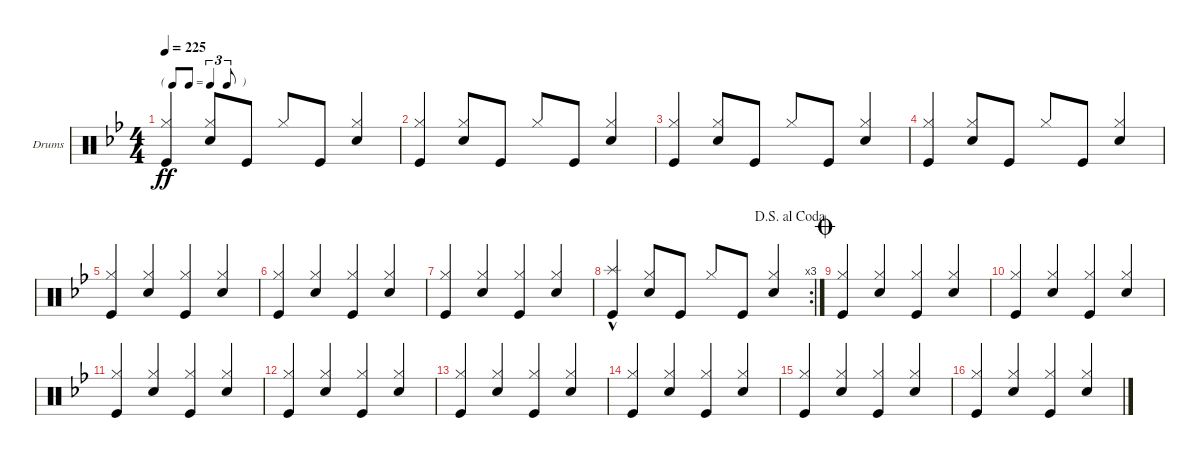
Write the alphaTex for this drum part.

\defaultSystemsLayout 4
\bracketExtendMode groupsimilarinstruments
\firstSystemTrackNameOrientation horizontal
\otherSystemsTrackNameOrientation horizontal
\track ("Drumkit" "Drums") {instrument percussion}
\staff {score}
\articulation defaults
\ts (4 4)
\tf triplet8th
\tempo 225
\clef neutral
\ks gminor
("Kick (hit)" "Hi-Hat (closed)").4{dy ff} ("Snare (hit) 2" "Hi-Hat (closed)").8{beam invert} "Kick (hit)".8 "Hi-Hat (closed)".8{beam invert} "Kick (hit)".8 ("Snare (hit) 2" "Hi-Hat (closed)").4{beam invert} |
("Kick (hit)" "Hi-Hat (closed)").4 ("Snare (hit) 2" "Hi-Hat (closed)").8{beam invert} "Kick (hit)".8 "Hi-Hat (closed)".8{beam invert} "Kick (hit)".8 ("Snare (hit) 2" "Hi-Hat (closed)").4{beam invert} |
("Kick (hit)" "Hi-Hat (closed)").4 ("Snare (hit) 2" "Hi-Hat (closed)").8{beam invert} "Kick (hit)".8 "Hi-Hat (closed)".8{beam invert} "Kick (hit)".8 ("Snare (hit) 2" "Hi-Hat (closed)").4{beam invert} |
("Kick (hit)" "Hi-Hat (closed)").4 ("Snare (hit) 2" "Hi-Hat (closed)").8{beam invert} "Kick (hit)".8 "Hi-Hat (closed)".8{beam invert} "Kick (hit)".8 ("Snare (hit) 2" "Hi-Hat (closed)").4{beam invert} |
("Kick (hit)" "Hi-Hat (closed)").4 ("Snare (hit) 2" "Hi-Hat (closed)").4{beam invert} ("Kick (hit)" "Hi-Hat (closed)").4 ("Snare (hit) 2" "Hi-Hat (closed)").4{beam invert} |
("Kick (hit)" "Hi-Hat (closed)").4 ("Snare (hit) 2" "Hi-Hat (closed)").4{beam invert} ("Kick (hit)" "Hi-Hat (closed)").4 ("Snare (hit) 2" "Hi-Hat (closed)").4{beam invert} |
("Kick (hit)" "Hi-Hat (closed)").4 ("Snare (hit) 2" "Hi-Hat (closed)").4{beam invert} ("Kick (hit)" "Hi-Hat (closed)").4 ("Snare (hit) 2" "Hi-Hat (closed)").4{beam invert} |
\rc 3
\jump dalsegnoalcoda
("Kick (hit)" "Splash (hit)"{hac}).4 ("Snare (hit) 2" "Hi-Hat (closed)").8{beam invert} "Kick (hit)".8 "Hi-Hat (closed)".8{beam invert} "Kick (hit)".8 ("Snare (hit) 2" "Hi-Hat (closed)").4{beam invert} |
\jump coda
("Kick (hit)" "Hi-Hat (closed)").4 ("Snare (hit) 2" "Hi-Hat (closed)").4{beam invert} ("Kick (hit)" "Hi-Hat (closed)").4 ("Snare (hit) 2" "Hi-Hat (closed)").4{beam invert} |
("Kick (hit)" "Hi-Hat (closed)").4 ("Snare (hit) 2" "Hi-Hat (closed)").4{beam invert} ("Kick (hit)" "Hi-Hat (closed)").4 ("Snare (hit) 2" "Hi-Hat (closed)").4{beam invert} |
("Kick (hit)" "Hi-Hat (closed)").4 ("Snare (hit) 2" "Hi-Hat (closed)").4{beam invert} ("Kick (hit)" "Hi-Hat (closed)").4 ("Snare (hit) 2" "Hi-Hat (closed)").4{beam invert} |
("Kick (hit)" "Hi-Hat (closed)").4 ("Snare (hit) 2" "Hi-Hat (closed)").4{beam invert} ("Kick (hit)" "Hi-Hat (closed)").4 ("Snare (hit) 2" "Hi-Hat (closed)").4{beam invert} |
("Kick (hit)" "Hi-Hat (closed)").4 ("Snare (hit) 2" "Hi-Hat (closed)").4{beam invert} ("Kick (hit)" "Hi-Hat (closed)").4 ("Snare (hit) 2" "Hi-Hat (closed)").4{beam invert} |
("Kick (hit)" "Hi-Hat (closed)").4 ("Snare (hit) 2" "Hi-Hat (closed)").4{beam invert} ("Kick (hit)" "Hi-Hat (closed)").4 ("Snare (hit) 2" "Hi-Hat (closed)").4{beam invert} |
("Kick (hit)" "Hi-Hat (closed)").4 ("Snare (hit) 2" "Hi-Hat (closed)").4{beam invert} ("Kick (hit)" "Hi-Hat (closed)").4 ("Snare (hit) 2" "Hi-Hat (closed)").4{beam invert} |
("Kick (hit)" "Hi-Hat (closed)").4 ("Snare (hit) 2" "Hi-Hat (closed)").4{beam invert} ("Kick (hit)" "Hi-Hat (closed)").4 ("Snare (hit) 2" "Hi-Hat (closed)").4{beam invert}
